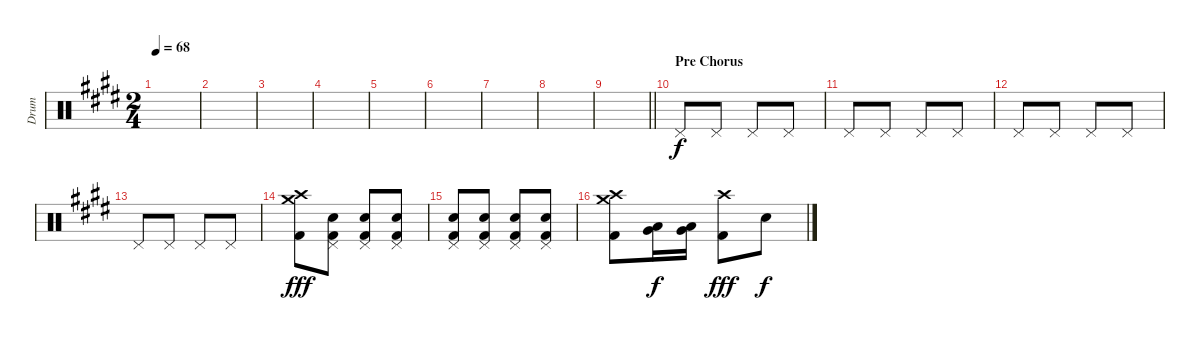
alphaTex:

\track ("Drum" "Drum") {instrument percussion}
\staff {score}
\articulation defaults
\ts (2 4)
\tempo 68
\clef neutral
\ks e
|
|
|
|
|
|
|
|
\barLineRight lightlight
|
\section ("" "Pre Chorus")
"Pedal Hi-Hat (hit)".8 "Pedal Hi-Hat (hit)".8 "Pedal Hi-Hat (hit)".8 "Pedal Hi-Hat (hit)".8 |
"Pedal Hi-Hat (hit)".8 "Pedal Hi-Hat (hit)".8 "Pedal Hi-Hat (hit)".8 "Pedal Hi-Hat (hit)".8 |
"Pedal Hi-Hat (hit)".8 "Pedal Hi-Hat (hit)".8 "Pedal Hi-Hat (hit)".8 "Pedal Hi-Hat (hit)".8 |
"Pedal Hi-Hat (hit)".8 "Pedal Hi-Hat (hit)".8 "Pedal Hi-Hat (hit)".8 "Pedal Hi-Hat (hit)".8 |
("Crash high (hit)" "Crash medium (hit)" "Kick (hit) 2").8{dy fff} ("Pedal Hi-Hat (hit)" "Snare (hit) 2" "Kick (hit) 2").8 ("Pedal Hi-Hat (hit)" "Snare (hit) 2" "Kick (hit) 2").8 ("Pedal Hi-Hat (hit)" "Snare (hit) 2" "Kick (hit) 2").8 |
("Pedal Hi-Hat (hit)" "Snare (hit) 2" "Kick (hit) 2").8 ("Pedal Hi-Hat (hit)" "Snare (hit) 2" "Kick (hit) 2").8 ("Pedal Hi-Hat (hit)" "Snare (hit) 2" "Kick (hit) 2").8 ("Pedal Hi-Hat (hit)" "Snare (hit) 2" "Kick (hit) 2").8 |
("Crash medium (hit)" "Crash high (hit)" "Kick (hit) 2").8 ("Low Tom (hit)" "Very Low Tom (hit)").16{dy f} ("Very Low Tom (hit)" "Low Floor Tom (hit)").16 ("Crash high (hit)" "Kick (hit) 2").8{dy fff} "Snare (hit) 2".8{dy f}
